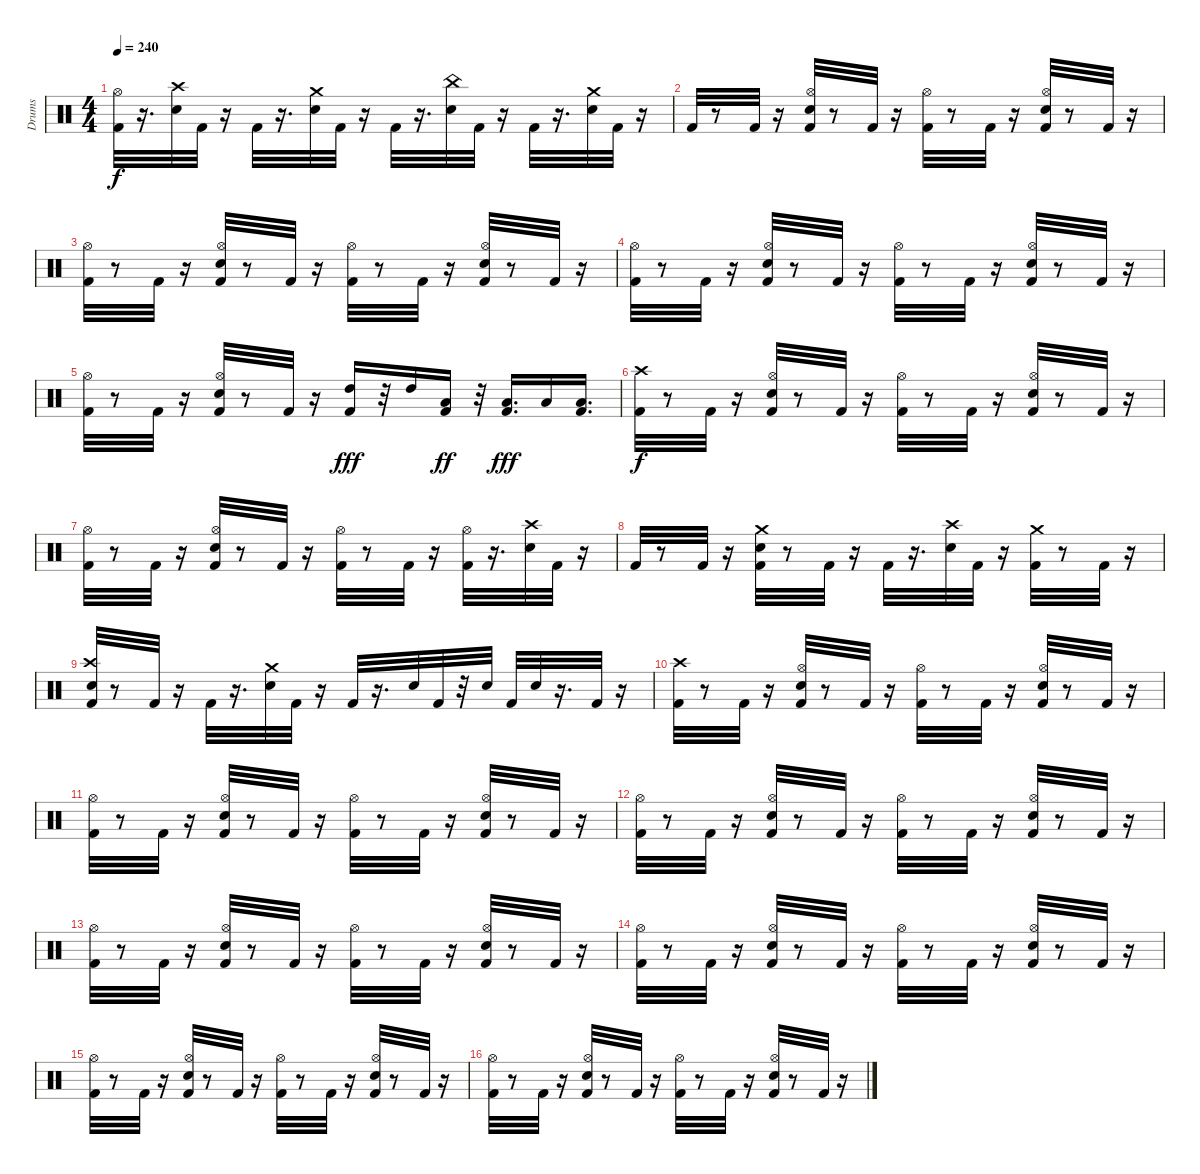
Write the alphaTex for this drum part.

\track ("Drums" "Drums") {instrument percussion}
\staff {score}
\articulation defaults
\ts (4 4)
\tempo 240
\clef neutral
\ks c
("Kick (hit) 2" "Hi-Hat (open)").32{dy f} r.16{d} ("Crash high (hit)" "Electric Snare (hit)").32 "Kick (hit) 2".32 r.16 "Kick (hit) 2".32 r.16{d} ("Electric Snare (hit)" "Crash medium (hit)").32 "Kick (hit) 2".32 r.16 "Kick (hit) 2".32 r.16{d} ("China (hit)" "Electric Snare (hit)").32 "Kick (hit) 2".32 r.16 "Kick (hit) 2".32 r.16{d} ("Electric Snare (hit)" "Crash medium (hit)").32 "Kick (hit) 2".32 r.16 |
"Kick (hit) 2".32 r.8 "Kick (hit) 2".32 r.16 ("Hi-Hat (open)" "Kick (hit) 2" "Electric Snare (hit)").32 r.8 "Kick (hit) 2".32 r.16 ("Kick (hit) 2" "Hi-Hat (open)").32 r.8 "Kick (hit) 2".32 r.16 ("Hi-Hat (open)" "Kick (hit) 2" "Electric Snare (hit)").32 r.8 "Kick (hit) 2".32 r.16 |
("Kick (hit) 2" "Hi-Hat (open)").32 r.8 "Kick (hit) 2".32 r.16 ("Hi-Hat (open)" "Kick (hit) 2" "Electric Snare (hit)").32 r.8 "Kick (hit) 2".32 r.16 ("Hi-Hat (open)" "Kick (hit) 2").32 r.8 "Kick (hit) 2".32 r.16 ("Kick (hit) 2" "Hi-Hat (open)" "Electric Snare (hit)").32 r.8 "Kick (hit) 2".32 r.16 |
("Hi-Hat (open)" "Kick (hit) 2").32 r.8 "Kick (hit) 2".32 r.16 ("Kick (hit) 2" "Hi-Hat (open)" "Electric Snare (hit)").32 r.8 "Kick (hit) 2".32 r.16 ("Hi-Hat (open)" "Kick (hit) 2").32 r.8 "Kick (hit) 2".32 r.16 ("Electric Snare (hit)" "Hi-Hat (open)" "Kick (hit) 2").32 r.8 "Kick (hit) 2".32 r.16 |
("Kick (hit) 2" "Hi-Hat (open)").32 r.8 "Kick (hit) 2".32 r.16 ("Electric Snare (hit)" "Kick (hit) 2" "Hi-Hat (open)").32 r.8 "Kick (hit) 2".32 r.16 ("Kick (hit) 2" "High Tom (hit)").16{dy fff} r.32 "High Tom (hit)".16 ("Kick (hit) 2" "Low Tom (hit)").16{dy ff} r.32 ("Kick (hit) 2" "Low Tom (hit)").16{d dy fff} "Low Floor Tom (hit)".16 ("Kick (hit) 2" "Low Floor Tom (hit)").16{d} |
("Kick (hit) 2" "Crash high (hit)").32{dy f} r.8 "Kick (hit) 2".32 r.16 ("Hi-Hat (open)" "Kick (hit) 2" "Electric Snare (hit)").32 r.8 "Kick (hit) 2".32 r.16 ("Hi-Hat (open)" "Kick (hit) 2").32 r.8 "Kick (hit) 2".32 r.16 ("Hi-Hat (open)" "Kick (hit) 2" "Electric Snare (hit)").32 r.8 "Kick (hit) 2".32 r.16 |
("Kick (hit) 2" "Hi-Hat (open)").32 r.8 "Kick (hit) 2".32 r.16 ("Electric Snare (hit)" "Hi-Hat (open)" "Kick (hit) 2").32 r.8 "Kick (hit) 2".32 r.16 ("Hi-Hat (open)" "Kick (hit) 2").32 r.8 "Kick (hit) 2".32 r.16 ("Hi-Hat (open)" "Kick (hit) 2").32 r.16{d} ("Crash high (hit)" "Electric Snare (hit)").32 "Kick (hit) 2".32 r.16 |
"Kick (hit) 2".32 r.8 "Kick (hit) 2".32 r.16 ("Electric Snare (hit)" "Crash medium (hit)" "Kick (hit) 2").32 r.8 "Kick (hit) 2".32 r.16 "Kick (hit) 2".32 r.16{d} ("Electric Snare (hit)" "Crash high (hit)").32 "Kick (hit) 2".32 r.16 ("Crash medium (hit)" "Kick (hit) 2").32 r.8 "Kick (hit) 2".32 r.16 |
("Crash high (hit)" "Kick (hit) 2" "Electric Snare (hit)").32 r.8 "Kick (hit) 2".32 r.16 "Kick (hit) 2".32 r.16{d} ("Electric Snare (hit)" "Crash medium (hit)").32 "Kick (hit) 2".32 r.16 "Kick (hit) 2".32 r.16{d} "Electric Snare (hit)".32 "Kick (hit) 2".32 r.32 "Electric Snare (hit)".32 "Kick (hit) 2".32 "Electric Snare (hit)".32 r.16{d} "Kick (hit) 2".32 r.16 |
("Kick (hit) 2" "Crash high (hit)").32 r.8 "Kick (hit) 2".32 r.16 ("Hi-Hat (open)" "Electric Snare (hit)" "Kick (hit) 2").32 r.8 "Kick (hit) 2".32 r.16 ("Kick (hit) 2" "Hi-Hat (open)").32 r.8 "Kick (hit) 2".32 r.16 ("Hi-Hat (open)" "Kick (hit) 2" "Electric Snare (hit)").32 r.8 "Kick (hit) 2".32 r.16 |
("Hi-Hat (open)" "Kick (hit) 2").32 r.8 "Kick (hit) 2".32 r.16 ("Electric Snare (hit)" "Kick (hit) 2" "Hi-Hat (open)").32 r.8 "Kick (hit) 2".32 r.16 ("Kick (hit) 2" "Hi-Hat (open)").32 r.8 "Kick (hit) 2".32 r.16 ("Electric Snare (hit)" "Kick (hit) 2" "Hi-Hat (open)").32 r.8 "Kick (hit) 2".32 r.16 |
("Hi-Hat (open)" "Kick (hit) 2").32 r.8 "Kick (hit) 2".32 r.16 ("Hi-Hat (open)" "Kick (hit) 2" "Electric Snare (hit)").32 r.8 "Kick (hit) 2".32 r.16 ("Kick (hit) 2" "Hi-Hat (open)").32 r.8 "Kick (hit) 2".32 r.16 ("Hi-Hat (open)" "Kick (hit) 2" "Electric Snare (hit)").32 r.8 "Kick (hit) 2".32 r.16 |
("Kick (hit) 2" "Hi-Hat (open)").32 r.8 "Kick (hit) 2".32 r.16 ("Hi-Hat (open)" "Kick (hit) 2" "Electric Snare (hit)").32 r.8 "Kick (hit) 2".32 r.16 ("Kick (hit) 2" "Hi-Hat (open)").32 r.8 "Kick (hit) 2".32 r.16 ("Hi-Hat (open)" "Kick (hit) 2" "Electric Snare (hit)").32 r.8 "Kick (hit) 2".32 r.16 |
("Hi-Hat (open)" "Kick (hit) 2").32 r.8 "Kick (hit) 2".32 r.16 ("Kick (hit) 2" "Hi-Hat (open)" "Electric Snare (hit)").32 r.8 "Kick (hit) 2".32 r.16 ("Kick (hit) 2" "Hi-Hat (open)").32 r.8 "Kick (hit) 2".32 r.16 ("Electric Snare (hit)" "Hi-Hat (open)" "Kick (hit) 2").32 r.8 "Kick (hit) 2".32 r.16 |
("Kick (hit) 2" "Hi-Hat (open)").32 r.8 "Kick (hit) 2".32 r.16 ("Electric Snare (hit)" "Hi-Hat (open)" "Kick (hit) 2").32 r.8 "Kick (hit) 2".32 r.16 ("Hi-Hat (open)" "Kick (hit) 2").32 r.8 "Kick (hit) 2".32 r.16 ("Hi-Hat (open)" "Electric Snare (hit)" "Kick (hit) 2").32 r.8 "Kick (hit) 2".32 r.16 |
("Hi-Hat (open)" "Kick (hit) 2").32 r.8 "Kick (hit) 2".32 r.16 ("Electric Snare (hit)" "Hi-Hat (open)" "Kick (hit) 2").32 r.8 "Kick (hit) 2".32 r.16 ("Kick (hit) 2" "Hi-Hat (open)").32 r.8 "Kick (hit) 2".32 r.16 ("Electric Snare (hit)" "Kick (hit) 2" "Hi-Hat (open)").32 r.8 "Kick (hit) 2".32 r.16
